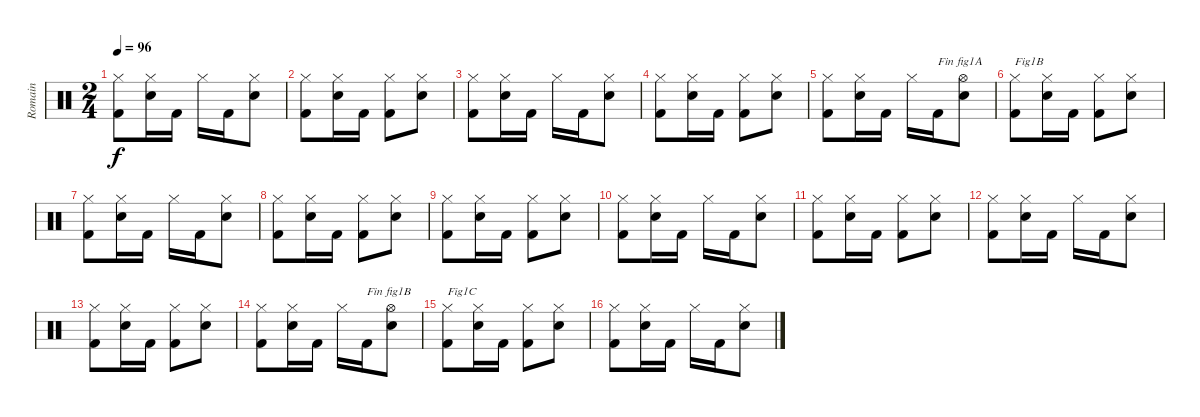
\track ("Romain" "Romain") {instrument percussion}
\staff {score}
\articulation defaults
\ts (2 4)
\tempo 96
\clef neutral
\ks c
("Kick (hit) 2" "Hi-Hat (closed)").8{dy f} ("Electric Snare (hit)" "Hi-Hat (closed)").16 "Kick (hit) 2".16 "Hi-Hat (closed)".16 "Kick (hit) 2".16 ("Electric Snare (hit)" "Hi-Hat (closed)").8 |
("Kick (hit) 2" "Hi-Hat (closed)").8 ("Electric Snare (hit)" "Hi-Hat (closed)").16 "Kick (hit) 2".16 ("Kick (hit) 2" "Hi-Hat (closed)").8 ("Electric Snare (hit)" "Hi-Hat (closed)").8 |
("Kick (hit) 2" "Hi-Hat (closed)").8 ("Electric Snare (hit)" "Hi-Hat (closed)").16 "Kick (hit) 2".16 "Hi-Hat (closed)".16 "Kick (hit) 2".16 ("Electric Snare (hit)" "Hi-Hat (closed)").8 |
("Kick (hit) 2" "Hi-Hat (closed)").8 ("Electric Snare (hit)" "Hi-Hat (closed)").16 "Kick (hit) 2".16 ("Kick (hit) 2" "Hi-Hat (closed)").8 ("Electric Snare (hit)" "Hi-Hat (closed)").8 |
("Kick (hit) 2" "Hi-Hat (closed)").8 ("Electric Snare (hit)" "Hi-Hat (closed)").16 "Kick (hit) 2".16 "Hi-Hat (closed)".16 "Kick (hit) 2".16{txt "Fin fig1A"} ("Electric Snare (hit)" "Hi-Hat (open)").8 |
("Kick (hit) 2" "Hi-Hat (closed)").8{txt "Fig1B"} ("Electric Snare (hit)" "Hi-Hat (closed)").16 "Kick (hit) 2".16 ("Kick (hit) 2" "Hi-Hat (closed)").8 ("Electric Snare (hit)" "Hi-Hat (closed)").8 |
("Kick (hit) 2" "Hi-Hat (closed)").8 ("Electric Snare (hit)" "Hi-Hat (closed)").16 "Kick (hit) 2".16 "Hi-Hat (closed)".16 "Kick (hit) 2".16 ("Electric Snare (hit)" "Hi-Hat (closed)").8 |
("Kick (hit) 2" "Hi-Hat (closed)").8 ("Electric Snare (hit)" "Hi-Hat (closed)").16 "Kick (hit) 2".16 ("Kick (hit) 2" "Hi-Hat (closed)").8 ("Electric Snare (hit)" "Hi-Hat (closed)").8 |
("Kick (hit) 2" "Hi-Hat (closed)").8 ("Electric Snare (hit)" "Hi-Hat (closed)").16 "Kick (hit) 2".16 ("Kick (hit) 2" "Hi-Hat (closed)").8 ("Electric Snare (hit)" "Hi-Hat (closed)").8 |
("Kick (hit) 2" "Hi-Hat (closed)").8 ("Electric Snare (hit)" "Hi-Hat (closed)").16 "Kick (hit) 2".16 "Hi-Hat (closed)".16 "Kick (hit) 2".16 ("Electric Snare (hit)" "Hi-Hat (closed)").8 |
("Kick (hit) 2" "Hi-Hat (closed)").8 ("Electric Snare (hit)" "Hi-Hat (closed)").16 "Kick (hit) 2".16 ("Kick (hit) 2" "Hi-Hat (closed)").8 ("Electric Snare (hit)" "Hi-Hat (closed)").8 |
("Kick (hit) 2" "Hi-Hat (closed)").8 ("Electric Snare (hit)" "Hi-Hat (closed)").16 "Kick (hit) 2".16 "Hi-Hat (closed)".16 "Kick (hit) 2".16 ("Electric Snare (hit)" "Hi-Hat (closed)").8 |
("Kick (hit) 2" "Hi-Hat (closed)").8 ("Electric Snare (hit)" "Hi-Hat (closed)").16 "Kick (hit) 2".16 ("Kick (hit) 2" "Hi-Hat (closed)").8 ("Electric Snare (hit)" "Hi-Hat (closed)").8 |
("Kick (hit) 2" "Hi-Hat (closed)").8 ("Electric Snare (hit)" "Hi-Hat (closed)").16 "Kick (hit) 2".16 "Hi-Hat (closed)".16 "Kick (hit) 2".16{txt "Fin fig1B"} ("Electric Snare (hit)" "Hi-Hat (open)").8 |
("Kick (hit) 2" "Hi-Hat (closed)").8{txt "Fig1C"} ("Electric Snare (hit)" "Hi-Hat (closed)").16 "Kick (hit) 2".16 ("Kick (hit) 2" "Hi-Hat (closed)").8 ("Electric Snare (hit)" "Hi-Hat (closed)").8 |
("Kick (hit) 2" "Hi-Hat (closed)").8 ("Electric Snare (hit)" "Hi-Hat (closed)").16 "Kick (hit) 2".16 "Hi-Hat (closed)".16 "Kick (hit) 2".16 ("Electric Snare (hit)" "Hi-Hat (closed)").8
